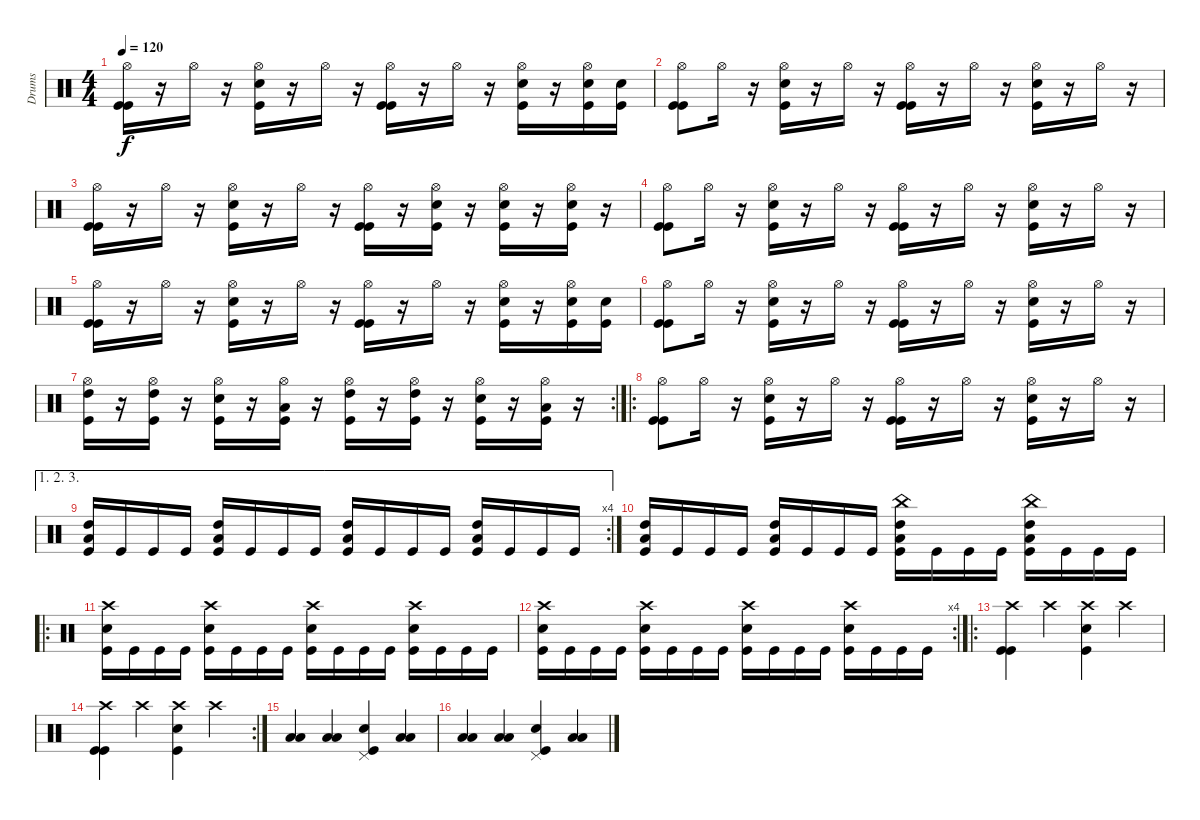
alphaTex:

\track ("Drums" "Drums") {instrument percussion}
\staff {score}
\articulation defaults
\ts (4 4)
\tempo 120
\clef neutral
\ks c
("Hi-Hat (open)" "Kick (hit)" "Kick (hit)").16{dy f} r.16 "Hi-Hat (open)".16 r.16 ("Hi-Hat (open)" "Snare (hit) 2" "Kick (hit)").16 r.16 "Hi-Hat (open)".16 r.16 ("Hi-Hat (open)" "Kick (hit)" "Kick (hit)").16 r.16 "Hi-Hat (open)".16 r.16 ("Hi-Hat (open)" "Snare (hit) 2" "Kick (hit)").16 r.16 ("Hi-Hat (open)" "Snare (hit) 2" "Kick (hit)").16 ("Snare (hit) 2" "Kick (hit)").16 |
("Hi-Hat (open)" "Kick (hit)" "Kick (hit)").8 "Hi-Hat (open)".16 r.16 ("Hi-Hat (open)" "Snare (hit) 2" "Kick (hit)").16 r.16 "Hi-Hat (open)".16 r.16 ("Hi-Hat (open)" "Kick (hit)" "Kick (hit)").16 r.16 "Hi-Hat (open)".16 r.16 ("Hi-Hat (open)" "Snare (hit) 2" "Kick (hit)").16 r.16 "Hi-Hat (open)".16 r.16 |
("Hi-Hat (open)" "Kick (hit)" "Kick (hit)").16 r.16 "Hi-Hat (open)".16 r.16 ("Hi-Hat (open)" "Snare (hit) 2" "Kick (hit)").16 r.16 "Hi-Hat (open)".16 r.16 ("Hi-Hat (open)" "Kick (hit)" "Kick (hit)").16 r.16 ("Hi-Hat (open)" "Snare (hit) 2" "Kick (hit)").16 r.16 ("Hi-Hat (open)" "Snare (hit) 2" "Kick (hit)").16 r.16 ("Hi-Hat (open)" "Snare (hit) 2" "Kick (hit)").16 r.16 |
("Hi-Hat (open)" "Kick (hit)" "Kick (hit)").8 "Hi-Hat (open)".16 r.16 ("Hi-Hat (open)" "Snare (hit) 2" "Kick (hit)").16 r.16 "Hi-Hat (open)".16 r.16 ("Hi-Hat (open)" "Kick (hit)" "Kick (hit)").16 r.16 "Hi-Hat (open)".16 r.16 ("Hi-Hat (open)" "Snare (hit) 2" "Kick (hit)").16 r.16 "Hi-Hat (open)".16 r.16 |
("Hi-Hat (open)" "Kick (hit)" "Kick (hit)").16 r.16 "Hi-Hat (open)".16 r.16 ("Hi-Hat (open)" "Snare (hit) 2" "Kick (hit)").16 r.16 "Hi-Hat (open)".16 r.16 ("Hi-Hat (open)" "Kick (hit)" "Kick (hit)").16 r.16 "Hi-Hat (open)".16 r.16 ("Hi-Hat (open)" "Snare (hit) 2" "Kick (hit)").16 r.16 ("Hi-Hat (open)" "Snare (hit) 2" "Kick (hit)").16 ("Snare (hit) 2" "Kick (hit)").16 |
("Hi-Hat (open)" "Kick (hit)" "Kick (hit)").8 "Hi-Hat (open)".16 r.16 ("Hi-Hat (open)" "Snare (hit) 2" "Kick (hit)").16 r.16 "Hi-Hat (open)".16 r.16 ("Hi-Hat (open)" "Kick (hit)" "Kick (hit)").16 r.16 "Hi-Hat (open)".16 r.16 ("Hi-Hat (open)" "Snare (hit) 2" "Kick (hit)").16 r.16 "Hi-Hat (open)".16 r.16 |
\rc 2
("Hi-Hat (open)" "High Tom (hit)" "Kick (hit)").16 r.16 ("Hi-Hat (open)" "High Tom (hit)" "Kick (hit)").16 r.16 ("Hi-Hat (open)" "Snare (hit) 2" "Kick (hit)").16 r.16 ("Hi-Hat (open)" "Low Tom (hit)" "Kick (hit)").16 r.16 ("Hi-Hat (open)" "High Tom (hit)" "Kick (hit)").16 r.16 ("Hi-Hat (open)" "High Tom (hit)" "Kick (hit)").16 r.16 ("Hi-Hat (open)" "Snare (hit) 2" "Kick (hit)").16 r.16 ("Hi-Hat (open)" "Low Tom (hit)" "Kick (hit)").16 r.16 |
\ro
("Hi-Hat (open)" "Kick (hit)" "Kick (hit)").8 "Hi-Hat (open)".16 r.16 ("Hi-Hat (open)" "Snare (hit) 2" "Kick (hit)").16 r.16 "Hi-Hat (open)".16 r.16 ("Hi-Hat (open)" "Kick (hit)" "Kick (hit)").16 r.16 "Hi-Hat (open)".16 r.16 ("Hi-Hat (open)" "Snare (hit) 2" "Kick (hit)").16 r.16 "Hi-Hat (open)".16 r.16 |
\ae (1 2 3)
\rc 4
("Low Tom (hit)" "High Tom (hit)" "Kick (hit)").16 "Kick (hit)".16 "Kick (hit)".16 "Kick (hit)".16 ("Low Tom (hit)" "High Tom (hit)" "Kick (hit)").16 "Kick (hit)".16 "Kick (hit)".16 "Kick (hit)".16 ("Low Tom (hit)" "High Tom (hit)" "Kick (hit)").16 "Kick (hit)".16 "Kick (hit)".16 "Kick (hit)".16 ("Low Tom (hit)" "High Tom (hit)" "Kick (hit)").16 "Kick (hit)".16 "Kick (hit)".16 "Kick (hit)".16 |
("Low Tom (hit)" "High Tom (hit)" "Kick (hit)").16 "Kick (hit)".16 "Kick (hit)".16 "Kick (hit)".16 ("Low Tom (hit)" "High Tom (hit)" "Kick (hit)").16 "Kick (hit)".16 "Kick (hit)".16 "Kick (hit)".16 ("China (hit)" "Low Tom (hit)" "High Tom (hit)" "Kick (hit)").16 "Kick (hit)".16 "Kick (hit)".16 "Kick (hit)".16 ("China (hit)" "Low Tom (hit)" "High Tom (hit)" "Kick (hit)").16 "Kick (hit)".16 "Kick (hit)".16 "Kick (hit)".16 |
\ro
("Crash high (hit)" "Snare (hit) 2" "Kick (hit)").16 "Kick (hit)".16 "Kick (hit)".16 "Kick (hit)".16 ("Crash high (hit)" "Snare (hit) 2" "Kick (hit)").16 "Kick (hit)".16 "Kick (hit)".16 "Kick (hit)".16 ("Crash high (hit)" "Snare (hit) 2" "Kick (hit)").16 "Kick (hit)".16 "Kick (hit)".16 "Kick (hit)".16 ("Crash high (hit)" "Snare (hit) 2" "Kick (hit)").16 "Kick (hit)".16 "Kick (hit)".16 "Kick (hit)".16 |
\rc 4
("Crash high (hit)" "Snare (hit) 2" "Kick (hit)").16 "Kick (hit)".16 "Kick (hit)".16 "Kick (hit)".16 ("Crash high (hit)" "Snare (hit) 2" "Kick (hit)").16 "Kick (hit)".16 "Kick (hit)".16 "Kick (hit)".16 ("Crash high (hit)" "Snare (hit) 2" "Kick (hit)").16 "Kick (hit)".16 "Kick (hit)".16 "Kick (hit)".16 ("Crash high (hit)" "Snare (hit) 2" "Kick (hit)").16 "Kick (hit)".16 "Kick (hit)".16 "Kick (hit)".16 |
\ro
("Crash high (hit)" "Kick (hit)" "Kick (hit)").4 "Crash high (hit)".4 ("Crash high (hit)" "Snare (hit) 2" "Kick (hit)").4 "Crash high (hit)".4 |
\rc 2
("Crash high (hit)" "Kick (hit)" "Kick (hit)").4 "Crash high (hit)".4 ("Crash high (hit)" "Snare (hit) 2" "Kick (hit)").4 "Crash high (hit)".4 |
("Low Tom (hit)" "Low Tom (hit)").4 ("Low Tom (hit)" "Low Tom (hit)").4 ("Pedal Hi-Hat (hit)" "Snare (hit) 2" "Kick (hit)").4 ("Low Tom (hit)" "Low Tom (hit)").4 |
("Low Tom (hit)" "Low Tom (hit)").4 ("Low Tom (hit)" "Low Tom (hit)").4 ("Pedal Hi-Hat (hit)" "Snare (hit) 2" "Kick (hit)").4 ("Low Tom (hit)" "Low Tom (hit)").4
